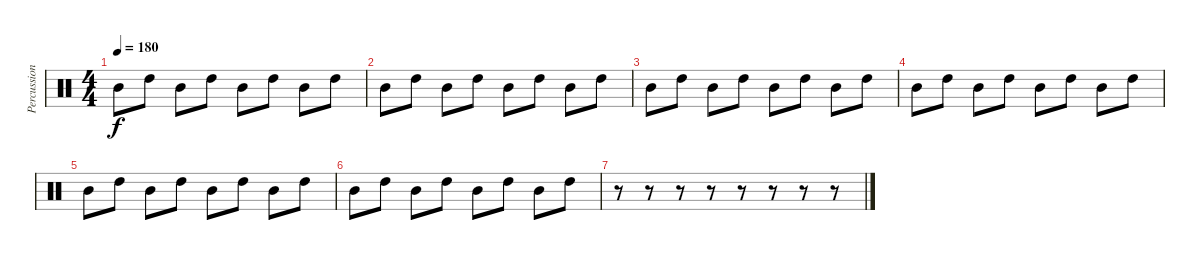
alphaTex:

\track ("Percussions" "Percussion") {instrument percussion}
\staff {score}
\articulation defaults
\ts (4 4)
\tempo 180
\clef neutral
\ks c "Mid Tom (hit)".8{dy f} "High Tom (hit)".8 "Mid Tom (hit)".8 "High Tom (hit)".8 "Mid Tom (hit)".8 "High Tom (hit)".8 "Mid Tom (hit)".8 "High Tom (hit)".8
|
"Mid Tom (hit)".8 "High Tom (hit)".8 "Mid Tom (hit)".8 "High Tom (hit)".8 "Mid Tom (hit)".8 "High Tom (hit)".8 "Mid Tom (hit)".8 "High Tom (hit)".8 |
"Mid Tom (hit)".8 "High Tom (hit)".8 "Mid Tom (hit)".8 "High Tom (hit)".8 "Mid Tom (hit)".8 "High Tom (hit)".8 "Mid Tom (hit)".8 "High Tom (hit)".8 |
"Mid Tom (hit)".8 "High Tom (hit)".8 "Mid Tom (hit)".8 "High Tom (hit)".8 "Mid Tom (hit)".8 "High Tom (hit)".8 "Mid Tom (hit)".8 "High Tom (hit)".8 |
"Mid Tom (hit)".8 "High Tom (hit)".8 "Mid Tom (hit)".8 "High Tom (hit)".8 "Mid Tom (hit)".8 "High Tom (hit)".8 "Mid Tom (hit)".8 "High Tom (hit)".8 |
"Mid Tom (hit)".8 "High Tom (hit)".8 "Mid Tom (hit)".8 "High Tom (hit)".8 "Mid Tom (hit)".8 "High Tom (hit)".8 "Mid Tom (hit)".8 "High Tom (hit)".8 |
r.8 r.8 r.8 r.8 r.8 r.8 r.8 r.8
